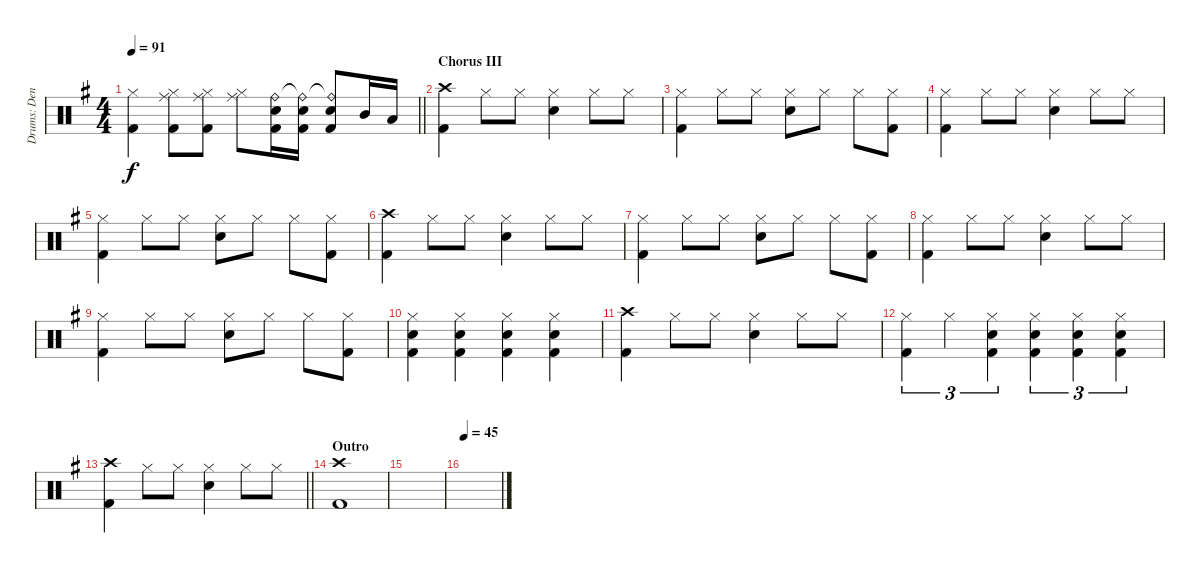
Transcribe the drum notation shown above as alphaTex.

\track ("Drums: Denny" "Drums: Den") {instrument percussion}
\staff {score}
\articulation defaults
\ts (4 4)
\tempo 91
\clef neutral
\barLineRight lightlight
\ks g
("Hi-Hat (closed)" "Kick (hit) 2").4{dy f} ("Ride (middle)" "Hi-Hat (closed)" "Kick (hit) 2").8 ("Ride (middle)" "Hi-Hat (closed)" "Kick (hit) 2").8 ("Ride (middle)" "Hi-Hat (closed)").8 ("Ride (bell)" "Electric Snare (hit)" "Kick (hit) 2").16 ("Ride (bell)"{t} "Electric Snare (hit)" "Kick (hit) 2").16 ("Ride (bell)"{t} "Electric Snare (hit)" "Kick (hit) 2").8 "Mid Tom (hit)".16 "Low Tom (hit)".16 |
\section ("" "Chorus III")
("Crash high (hit)" "Kick (hit) 2").4 "Hi-Hat (closed)".8 "Hi-Hat (closed)".8 ("Hi-Hat (closed)" "Electric Snare (hit)").4 "Hi-Hat (closed)".8 "Hi-Hat (closed)".8 |
("Hi-Hat (closed)" "Kick (hit) 2").4 "Hi-Hat (closed)".8 "Hi-Hat (closed)".8 ("Hi-Hat (closed)" "Electric Snare (hit)").8 "Hi-Hat (closed)".8 "Hi-Hat (closed)".8 ("Hi-Hat (closed)" "Kick (hit) 2").8 |
("Hi-Hat (closed)" "Kick (hit) 2").4 "Hi-Hat (closed)".8 "Hi-Hat (closed)".8 ("Hi-Hat (closed)" "Electric Snare (hit)").4 "Hi-Hat (closed)".8 "Hi-Hat (closed)".8 |
("Hi-Hat (closed)" "Kick (hit) 2").4 "Hi-Hat (closed)".8 "Hi-Hat (closed)".8 ("Hi-Hat (closed)" "Electric Snare (hit)").8 "Hi-Hat (closed)".8 "Hi-Hat (closed)".8 ("Hi-Hat (closed)" "Kick (hit) 2").8 |
("Crash high (hit)" "Kick (hit) 2").4 "Hi-Hat (closed)".8 "Hi-Hat (closed)".8 ("Hi-Hat (closed)" "Electric Snare (hit)").4 "Hi-Hat (closed)".8 "Hi-Hat (closed)".8 |
("Hi-Hat (closed)" "Kick (hit) 2").4 "Hi-Hat (closed)".8 "Hi-Hat (closed)".8 ("Hi-Hat (closed)" "Electric Snare (hit)").8 "Hi-Hat (closed)".8 "Hi-Hat (closed)".8 ("Hi-Hat (closed)" "Kick (hit) 2").8 |
("Hi-Hat (closed)" "Kick (hit) 2").4 "Hi-Hat (closed)".8 "Hi-Hat (closed)".8 ("Hi-Hat (closed)" "Electric Snare (hit)").4 "Hi-Hat (closed)".8 "Hi-Hat (closed)".8 |
("Hi-Hat (closed)" "Kick (hit) 2").4 "Hi-Hat (closed)".8 "Hi-Hat (closed)".8 ("Hi-Hat (closed)" "Electric Snare (hit)").8 "Hi-Hat (closed)".8 "Hi-Hat (closed)".8 ("Hi-Hat (closed)" "Kick (hit) 2").8 |
("Hi-Hat (closed)" "Electric Snare (hit)" "Kick (hit) 2").4 ("Hi-Hat (closed)" "Electric Snare (hit)" "Kick (hit) 2").4 ("Hi-Hat (closed)" "Electric Snare (hit)" "Kick (hit) 2").4 ("Hi-Hat (closed)" "Electric Snare (hit)" "Kick (hit) 2").4 |
("Crash high (hit)" "Kick (hit) 2").4 "Hi-Hat (closed)".8 "Hi-Hat (closed)".8 ("Hi-Hat (closed)" "Electric Snare (hit)").4 "Hi-Hat (closed)".8 "Hi-Hat (closed)".8 |
("Hi-Hat (closed)" "Kick (hit) 2").4{tu (3 2)} "Hi-Hat (closed)".4{tu (3 2)} ("Hi-Hat (closed)" "Electric Snare (hit)" "Kick (hit) 2").4{tu (3 2)} ("Hi-Hat (closed)" "Electric Snare (hit)" "Kick (hit) 2").4{tu (3 2)} ("Hi-Hat (closed)" "Electric Snare (hit)" "Kick (hit) 2").4{tu (3 2)} ("Hi-Hat (closed)" "Electric Snare (hit)" "Kick (hit) 2").4{tu (3 2)} |
\barLineRight lightlight
("Crash high (hit)" "Kick (hit) 2").4 "Hi-Hat (closed)".8 "Hi-Hat (closed)".8 ("Hi-Hat (closed)" "Electric Snare (hit)").4 "Hi-Hat (closed)".8 "Hi-Hat (closed)".8 |
\section ("" "Outro")
("Crash high (hit)" "Kick (hit) 2").1 |
|
\tempo 45
